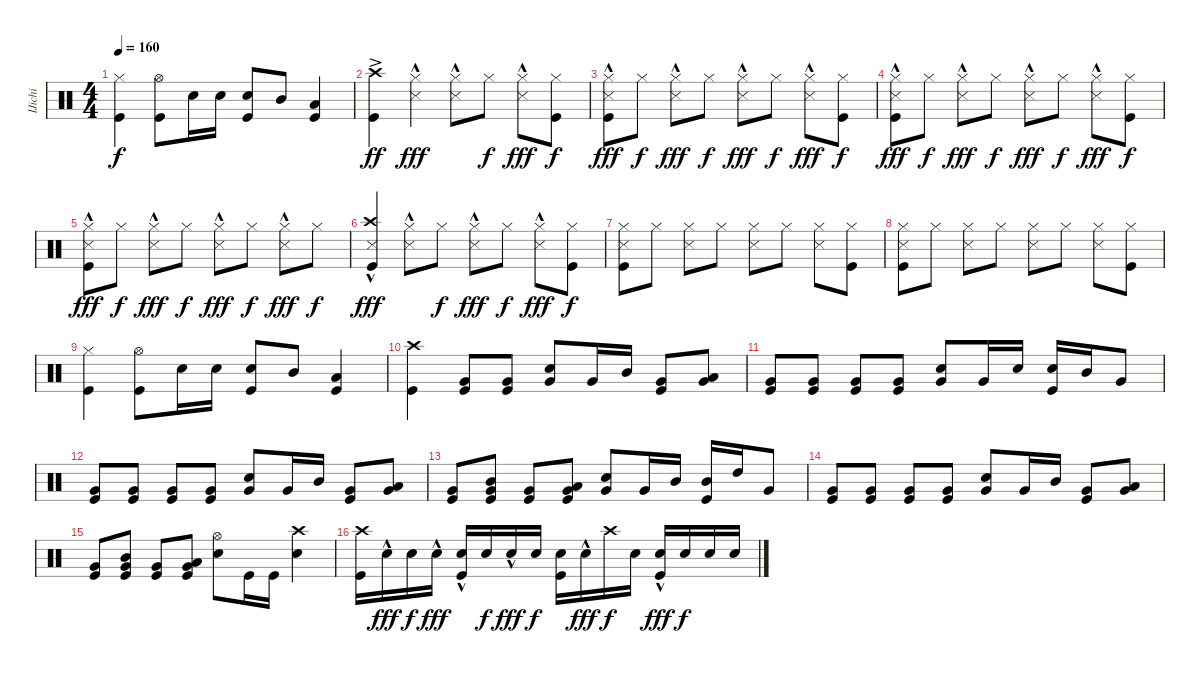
\track ("IJichi" "IJichi") {instrument percussion}
\staff {score}
\articulation defaults
\ts (4 4)
\tempo 160
\clef neutral
\ks c
("Hi-Hat (closed)" "Kick (hit)").4{dy f} ("Hi-Hat (open)" "Kick (hit)").8 "Snare (hit) 2".16 "Snare (hit) 2".16 ("Snare (hit) 2" "Kick (hit)").8 "Mid Tom (hit)".8 ("Low Tom (hit)" "Kick (hit)").4 |
("Crash high (hit)"{ac} "Kick (hit)").4{dy ff} ("Hi-Hat (closed)" "Snare (side stick) 3"{hac}).4{dy fff} ("Hi-Hat (closed)" "Snare (side stick) 3"{hac}).8 "Hi-Hat (closed)".8{dy f} ("Hi-Hat (closed)" "Snare (side stick) 3"{hac}).8{dy fff} ("Hi-Hat (closed)" "Kick (hit)").8{dy f} |
("Hi-Hat (closed)" "Snare (side stick) 3"{hac} "Kick (hit)").8{dy fff} "Hi-Hat (closed)".8{dy f} ("Hi-Hat (closed)" "Snare (side stick) 3"{hac}).8{dy fff} "Hi-Hat (closed)".8{dy f} ("Hi-Hat (closed)" "Snare (side stick) 3"{hac}).8{dy fff} "Hi-Hat (closed)".8{dy f} ("Hi-Hat (closed)" "Snare (side stick) 3"{hac}).8{dy fff} ("Hi-Hat (closed)" "Kick (hit)").8{dy f} |
("Hi-Hat (closed)" "Snare (side stick) 3"{hac} "Kick (hit)").8{dy fff} "Hi-Hat (closed)".8{dy f} ("Hi-Hat (closed)" "Snare (side stick) 3"{hac}).8{dy fff} "Hi-Hat (closed)".8{dy f} ("Hi-Hat (closed)" "Snare (side stick) 3"{hac}).8{dy fff} "Hi-Hat (closed)".8{dy f} ("Hi-Hat (closed)" "Snare (side stick) 3"{hac}).8{dy fff} ("Hi-Hat (closed)" "Kick (hit)").8{dy f} |
("Hi-Hat (closed)" "Snare (side stick) 3"{hac} "Kick (hit)").8{dy fff} "Hi-Hat (closed)".8{dy f} ("Hi-Hat (closed)" "Snare (side stick) 3"{hac}).8{dy fff} "Hi-Hat (closed)".8{dy f} ("Hi-Hat (closed)" "Snare (side stick) 3"{hac}).8{dy fff} "Hi-Hat (closed)".8{dy f} ("Hi-Hat (closed)" "Snare (side stick) 3"{hac}).8{dy fff} "Hi-Hat (closed)".8{dy f} |
("Crash high (hit)" "Snare (side stick) 3"{hac} "Kick (hit)").4{dy fff} ("Hi-Hat (closed)" "Snare (side stick) 3"{hac}).8 "Hi-Hat (closed)".8{dy f} ("Hi-Hat (closed)" "Snare (side stick) 3"{hac}).8{dy fff} "Hi-Hat (closed)".8{dy f} ("Hi-Hat (closed)" "Snare (side stick) 3"{hac}).8{dy fff} ("Hi-Hat (closed)" "Kick (hit)").8{dy f} |
("Hi-Hat (closed)" "Snare (side stick) 3" "Kick (hit)").8 "Hi-Hat (closed)".8 ("Hi-Hat (closed)" "Snare (side stick) 3").8 "Hi-Hat (closed)".8 ("Hi-Hat (closed)" "Snare (side stick) 3").8 "Hi-Hat (closed)".8 ("Hi-Hat (closed)" "Snare (side stick) 3").8 ("Hi-Hat (closed)" "Kick (hit)").8 |
("Hi-Hat (closed)" "Snare (side stick) 3" "Kick (hit)").8 "Hi-Hat (closed)".8 ("Hi-Hat (closed)" "Snare (side stick) 3").8 "Hi-Hat (closed)".8 ("Hi-Hat (closed)" "Snare (side stick) 3").8 "Hi-Hat (closed)".8 ("Hi-Hat (closed)" "Snare (side stick) 3").8 ("Hi-Hat (closed)" "Kick (hit)").8 |
("Hi-Hat (closed)" "Kick (hit)").4 ("Hi-Hat (open)" "Kick (hit)").8 "Snare (hit) 2".16 "Snare (hit) 2".16 ("Snare (hit) 2" "Kick (hit)").8 "Mid Tom (hit)".8 ("Low Tom (hit)" "Kick (hit)").4 |
("Crash high (hit)" "Kick (hit)").4 ("Very Low Tom (hit)" "Kick (hit)").8 ("Very Low Tom (hit)" "Kick (hit)").8 ("Snare (hit) 2" "Very Low Tom (hit)").8 "Very Low Tom (hit)".16 "Mid Tom (hit)".16 ("Very Low Tom (hit)" "Kick (hit)").8 ("Low Tom (hit)" "Very Low Tom (hit)").8 |
("Very Low Tom (hit)" "Kick (hit)").8 ("Very Low Tom (hit)" "Kick (hit)").8 ("Very Low Tom (hit)" "Kick (hit)").8 ("Very Low Tom (hit)" "Kick (hit)").8 ("Snare (hit) 2" "Very Low Tom (hit)").8 "Very Low Tom (hit)".16 "Snare (hit) 2".16 ("Snare (hit) 2" "Kick (hit)").16 "Mid Tom (hit)".16 "Very Low Tom (hit)".8 |
("Very Low Tom (hit)" "Kick (hit)").8 ("Very Low Tom (hit)" "Kick (hit)").8 ("Very Low Tom (hit)" "Kick (hit)").8 ("Very Low Tom (hit)" "Kick (hit)").8 ("Snare (hit) 2" "Very Low Tom (hit)").8 "Very Low Tom (hit)".16 "Mid Tom (hit)".16 ("Very Low Tom (hit)" "Kick (hit)").8 ("Low Tom (hit)" "Very Low Tom (hit)").8 |
("Very Low Tom (hit)" "Kick (hit)").8 ("Mid Tom (hit)" "Very Low Tom (hit)" "Kick (hit)").8 ("Very Low Tom (hit)" "Kick (hit)").8 ("Low Tom (hit)" "Very Low Tom (hit)" "Kick (hit)").8 ("Snare (hit) 2" "Very Low Tom (hit)").8 "Very Low Tom (hit)".16 "Mid Tom (hit)".16 ("Mid Tom (hit)" "Kick (hit)").16 "High Tom (hit)".16 "Very Low Tom (hit)".8 |
("Very Low Tom (hit)" "Kick (hit)").8 ("Very Low Tom (hit)" "Kick (hit)").8 ("Very Low Tom (hit)" "Kick (hit)").8 ("Very Low Tom (hit)" "Kick (hit)").8 ("Snare (hit) 2" "Very Low Tom (hit)").8 "Very Low Tom (hit)".16 "Mid Tom (hit)".16 ("Very Low Tom (hit)" "Kick (hit)").8 ("Low Tom (hit)" "Very Low Tom (hit)").8 |
("Very Low Tom (hit)" "Kick (hit)").8 ("Mid Tom (hit)" "Very Low Tom (hit)" "Kick (hit)").8 ("Very Low Tom (hit)" "Kick (hit)").8 ("Low Tom (hit)" "Very Low Tom (hit)" "Kick (hit)").8 ("Hi-Hat (open)" "Snare (hit) 2").8 "Kick (hit)".16 "Kick (hit)".16 ("Crash high (hit)" "Snare (hit) 2").4 |
("Crash high (hit)" "Kick (hit)").16 "Snare (hit) 2"{hac}.16{dy fff} "Snare (hit) 2".16{dy f} "Snare (hit) 2"{hac}.16{dy fff} ("Snare (hit) 2"{hac} "Kick (hit)").16 "Snare (hit) 2".16{dy f} "Snare (hit) 2"{hac}.16{dy fff} "Snare (hit) 2".16{dy f} ("Snare (hit) 2" "Kick (hit)").16 "Snare (hit) 2"{hac}.16{dy fff} "Crash high (hit)".16{dy f} "Snare (hit) 2".16 ("Snare (hit) 2"{hac} "Kick (hit)").16{dy fff} "Snare (hit) 2".16{dy f} "Snare (hit) 2".16 "Snare (hit) 2".16
